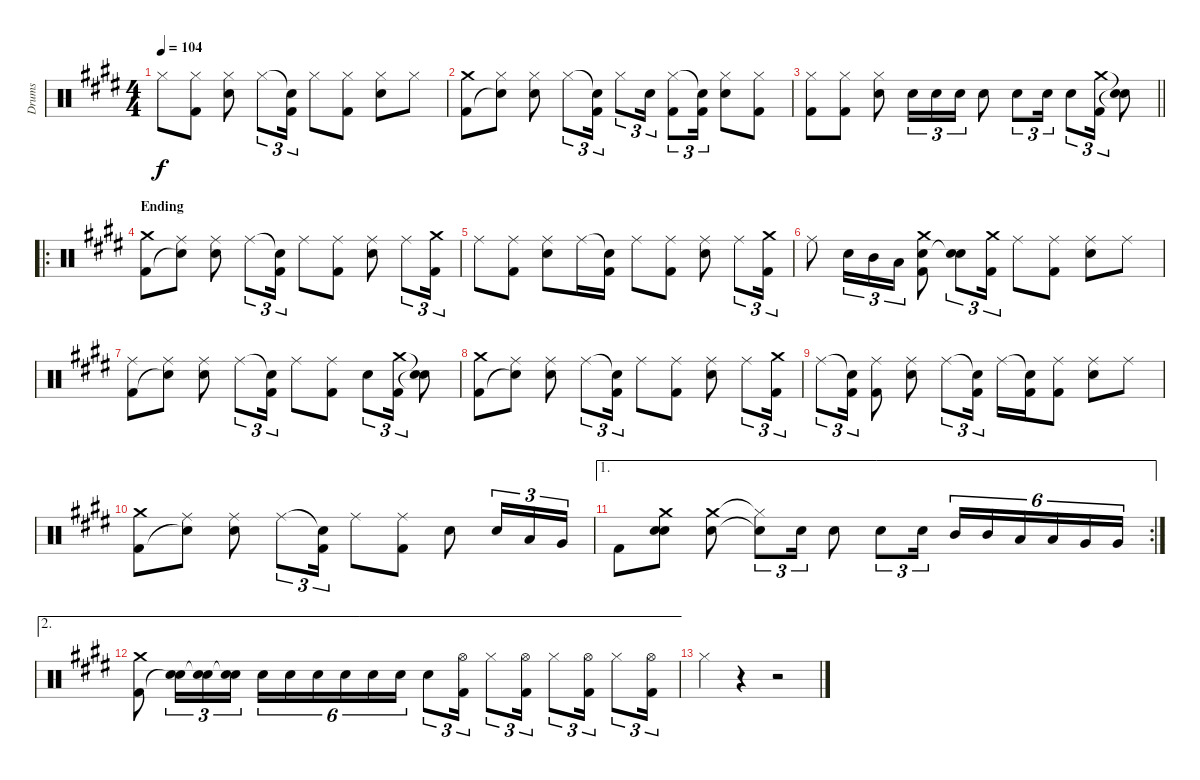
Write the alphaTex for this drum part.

\track ("Drums" "Drums") {instrument percussion}
\staff {score}
\articulation defaults
\ts (4 4)
\tempo 104
\clef neutral
\ks c#minor "Hi-Hat (closed)".8{dy f}
("Hi-Hat (closed)" "Kick (hit) 2").8 ("Hi-Hat (closed)" "Electric Snare (hit)").8 "Hi-Hat (closed)".8{tu (3 2)} ("Snare (hit)"{t} "Kick (hit) 2").16{tu (3 2)} "Hi-Hat (closed)".8 ("Hi-Hat (closed)" "Kick (hit) 2").8 ("Hi-Hat (closed)" "Electric Snare (hit)").8 "Hi-Hat (closed)".8 |
("Crash medium (hit)" "Kick (hit) 2").8 ("Hi-Hat (closed)" "Snare (hit)"{t}).8 ("Hi-Hat (closed)" "Electric Snare (hit)").8 "Hi-Hat (closed)".8{tu (3 2)} ("Snare (hit)"{t} "Kick (hit) 2").16{tu (3 2)} "Hi-Hat (closed)".8{tu (3 2)} "Electric Snare (hit)".16{tu (3 2)} ("Hi-Hat (closed)" "Kick (hit) 2").8{tu (3 2)} ("Snare (hit)"{t} "Kick (hit) 2").16{tu (3 2)} ("Hi-Hat (closed)" "Electric Snare (hit)").8 ("Hi-Hat (closed)" "Kick (hit) 2").8 |
\barLineRight lightlight
("Hi-Hat (closed)" "Kick (hit) 2").8 ("Hi-Hat (closed)" "Kick (hit) 2").8 ("Hi-Hat (closed)" "Electric Snare (hit)").8 "Electric Snare (hit)".16{tu (3 2)} "Electric Snare (hit)".16{tu (3 2)} "Electric Snare (hit)".16{tu (3 2)} "Electric Snare (hit)".8 "Electric Snare (hit)".8{tu (3 2)} "Electric Snare (hit)".16{tu (3 2)} "Electric Snare (hit)".8{tu (3 2)} ("Crash medium (hit)" "Kick (hit) 2").16{tu (3 2)} ("Snare (hit)"{t} "Snare (hit)"{t}).8 |
\ro
\section ("" "Ending")
("Crash medium (hit)" "Kick (hit) 2").8 ("Ride (middle)" "Snare (hit)"{t}).8 ("Ride (middle)" "Electric Snare (hit)").8 "Ride (middle)".8{tu (3 2)} ("Snare (hit)"{t} "Kick (hit) 2").16{tu (3 2)} "Ride (middle)".8 ("Ride (middle)" "Kick (hit) 2").8 ("Ride (middle)" "Electric Snare (hit)").8 "Ride (middle)".8{tu (3 2)} ("Crash medium (hit)" "Kick (hit) 2").16{tu (3 2)} |
"Ride (middle)".8 ("Ride (middle)" "Kick (hit) 2").8 ("Ride (middle)" "Electric Snare (hit)").8 "Ride (middle)".16 ("Snare (hit)"{t} "Kick (hit) 2").16 "Ride (middle)".8 ("Ride (middle)" "Kick (hit) 2").8 ("Ride (middle)" "Electric Snare (hit)").8 "Ride (middle)".8{tu (3 2)} ("Crash medium (hit)" "Kick (hit) 2").16{tu (3 2)} |
"Ride (middle)".8 "Electric Snare (hit)".16{tu (3 2)} "Mid Tom (hit)".16{tu (3 2)} "Low Tom (hit)".16{tu (3 2)} ("Crash medium (hit)" "Electric Snare (hit)" "Kick (hit) 2").8 ("Electric Snare (hit)" "Snare (hit)"{t}).8{tu (3 2)} ("Crash medium (hit)" "Kick (hit) 2").16{tu (3 2)} "Ride (middle)".8 ("Ride (middle)" "Kick (hit) 2").8 ("Ride (middle)" "Electric Snare (hit)").8 "Ride (middle)".8 |
("Ride (middle)" "Kick (hit) 2").8 ("Ride (middle)" "Snare (hit)"{t}).8 ("Ride (middle)" "Electric Snare (hit)").8 "Ride (middle)".8{tu (3 2)} ("Snare (hit)"{t} "Kick (hit) 2").16{tu (3 2)} "Ride (middle)".8 ("Ride (middle)" "Kick (hit) 2").8 "Electric Snare (hit)".8{tu (3 2)} ("Crash medium (hit)" "Kick (hit) 2").16{tu (3 2)} ("Snare (hit)"{t} "Snare (hit)"{t}).8 |
("Crash medium (hit)" "Kick (hit) 2").8 ("Ride (middle)" "Snare (hit)"{t}).8 ("Ride (middle)" "Electric Snare (hit)").8 "Ride (middle)".8{tu (3 2)} ("Snare (hit)"{t} "Kick (hit) 2").16{tu (3 2)} "Ride (middle)".8 ("Ride (middle)" "Kick (hit) 2").8 ("Ride (middle)" "Electric Snare (hit)").8 "Ride (middle)".8{tu (3 2)} ("Crash medium (hit)" "Kick (hit) 2").16{tu (3 2)} |
"Ride (middle)".8{tu (3 2)} ("Snare (hit)"{t} "Kick (hit) 2").16{tu (3 2)} ("Ride (middle)" "Kick (hit) 2").8 ("Ride (middle)" "Electric Snare (hit)").8 "Ride (middle)".8{tu (3 2)} ("Snare (hit)"{t} "Kick (hit) 2").16{tu (3 2)} "Ride (middle)".16 ("Snare (hit)"{t} "Kick (hit) 2").16 ("Ride (middle)" "Kick (hit) 2").8 ("Ride (middle)" "Electric Snare (hit)").8 "Ride (middle)".8 |
("Crash medium (hit)" "Kick (hit) 2").8 ("Ride (middle)" "Snare (hit)"{t}).8 ("Ride (middle)" "Electric Snare (hit)").8 "Ride (middle)".8{tu (3 2)} ("Snare (hit)"{t} "Kick (hit) 2").16{tu (3 2)} "Ride (middle)".8 ("Ride (middle)" "Kick (hit) 2").8 "Electric Snare (hit)".8 "Electric Snare (hit)".16{tu (3 2)} "Low Tom (hit)".16{tu (3 2)} "Very Low Tom (hit)".16{tu (3 2)} |
\ae 1
\rc 2 "Kick (hit) 2".8
("Crash medium (hit)" "Electric Snare (hit)" "Snare (hit)").8 ("Crash medium (hit)" "Electric Snare (hit)").8 ("Hi-Hat (closed)"{t} "Snare (hit)"{t}).8{tu (3 2)} "Electric Snare (hit)".16{tu (3 2)} "Electric Snare (hit)".8 "Electric Snare (hit)".8{tu (3 2)} "Electric Snare (hit)".16{tu (3 2)} "Mid Tom (hit)".16{tu (6 4)} "Mid Tom (hit)".16{tu (6 4)} "Low Tom (hit)".16{tu (6 4)} "Low Tom (hit)".16{tu (6 4)} "Very Low Tom (hit)".16{tu (6 4)} "Very Low Tom (hit)".16{tu (6 4)} |
\ae 2
("Crash medium (hit)" "Kick (hit) 2").8 ("Electric Snare (hit)" "Snare (hit)"{t}).16{tu (3 2)} ("Electric Snare (hit)" "Snare (hit)"{t}).16{tu (3 2)} ("Electric Snare (hit)" "Snare (hit)"{t}).16{tu (3 2)} "Electric Snare (hit)".16{tu (6 4)} "Electric Snare (hit)".16{tu (6 4)} "Electric Snare (hit)".16{tu (6 4)} "Electric Snare (hit)".16{tu (6 4)} "Electric Snare (hit)".16{tu (6 4)} "Electric Snare (hit)".16{tu (6 4)} "Electric Snare (hit)".8{tu (3 2)} ("Hi-Hat (open)" "Kick (hit) 2").16{tu (3 2)} "Hi-Hat (closed)".8{tu (3 2)} ("Hi-Hat (open)" "Kick (hit) 2").16{tu (3 2)} "Hi-Hat (closed)".8{tu (3 2)} ("Hi-Hat (open)" "Kick (hit) 2").16{tu (3 2)} "Hi-Hat (closed)".8{tu (3 2)} ("Hi-Hat (open)" "Kick (hit) 2").16{tu (3 2)} |
"Hi-Hat (closed)".4 r.4 r.2
